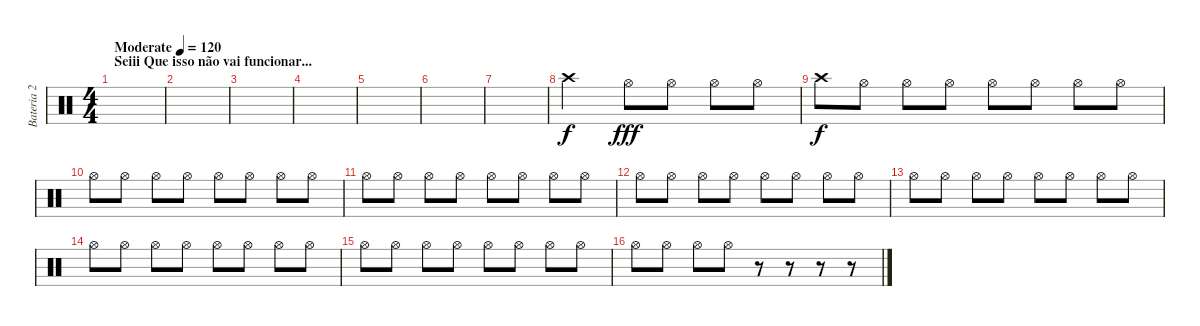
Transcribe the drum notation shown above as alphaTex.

\track ("Bateria 2" "Bateria 2") {instrument percussion}
\staff {score}
\articulation defaults
\ts (4 4)
\section ("" "Seiii Que isso não vai funcionar...")
\tempo (120 "Moderate")
\clef neutral
\ks c
|
|
|
|
|
|
|
"Crash high (hit)".2 "Hi-Hat (open)".8{dy fff} "Hi-Hat (open)".8 "Hi-Hat (open)".8 "Hi-Hat (open)".8 |
"Crash high (hit)".8{dy f} "Hi-Hat (open)".8 "Hi-Hat (open)".8 "Hi-Hat (open)".8 "Hi-Hat (open)".8 "Hi-Hat (open)".8 "Hi-Hat (open)".8 "Hi-Hat (open)".8 |
"Hi-Hat (open)".8 "Hi-Hat (open)".8 "Hi-Hat (open)".8 "Hi-Hat (open)".8 "Hi-Hat (open)".8 "Hi-Hat (open)".8 "Hi-Hat (open)".8 "Hi-Hat (open)".8 |
"Hi-Hat (open)".8 "Hi-Hat (open)".8 "Hi-Hat (open)".8 "Hi-Hat (open)".8 "Hi-Hat (open)".8 "Hi-Hat (open)".8 "Hi-Hat (open)".8 "Hi-Hat (open)".8 |
"Hi-Hat (open)".8 "Hi-Hat (open)".8 "Hi-Hat (open)".8 "Hi-Hat (open)".8 "Hi-Hat (open)".8 "Hi-Hat (open)".8 "Hi-Hat (open)".8 "Hi-Hat (open)".8 |
"Hi-Hat (open)".8 "Hi-Hat (open)".8 "Hi-Hat (open)".8 "Hi-Hat (open)".8 "Hi-Hat (open)".8 "Hi-Hat (open)".8 "Hi-Hat (open)".8 "Hi-Hat (open)".8 |
"Hi-Hat (open)".8 "Hi-Hat (open)".8 "Hi-Hat (open)".8 "Hi-Hat (open)".8 "Hi-Hat (open)".8 "Hi-Hat (open)".8 "Hi-Hat (open)".8 "Hi-Hat (open)".8 |
"Hi-Hat (open)".8 "Hi-Hat (open)".8 "Hi-Hat (open)".8 "Hi-Hat (open)".8 "Hi-Hat (open)".8 "Hi-Hat (open)".8 "Hi-Hat (open)".8 "Hi-Hat (open)".8 |
"Hi-Hat (open)".8 "Hi-Hat (open)".8 "Hi-Hat (open)".8 "Hi-Hat (open)".8 r.8 r.8 r.8 r.8
